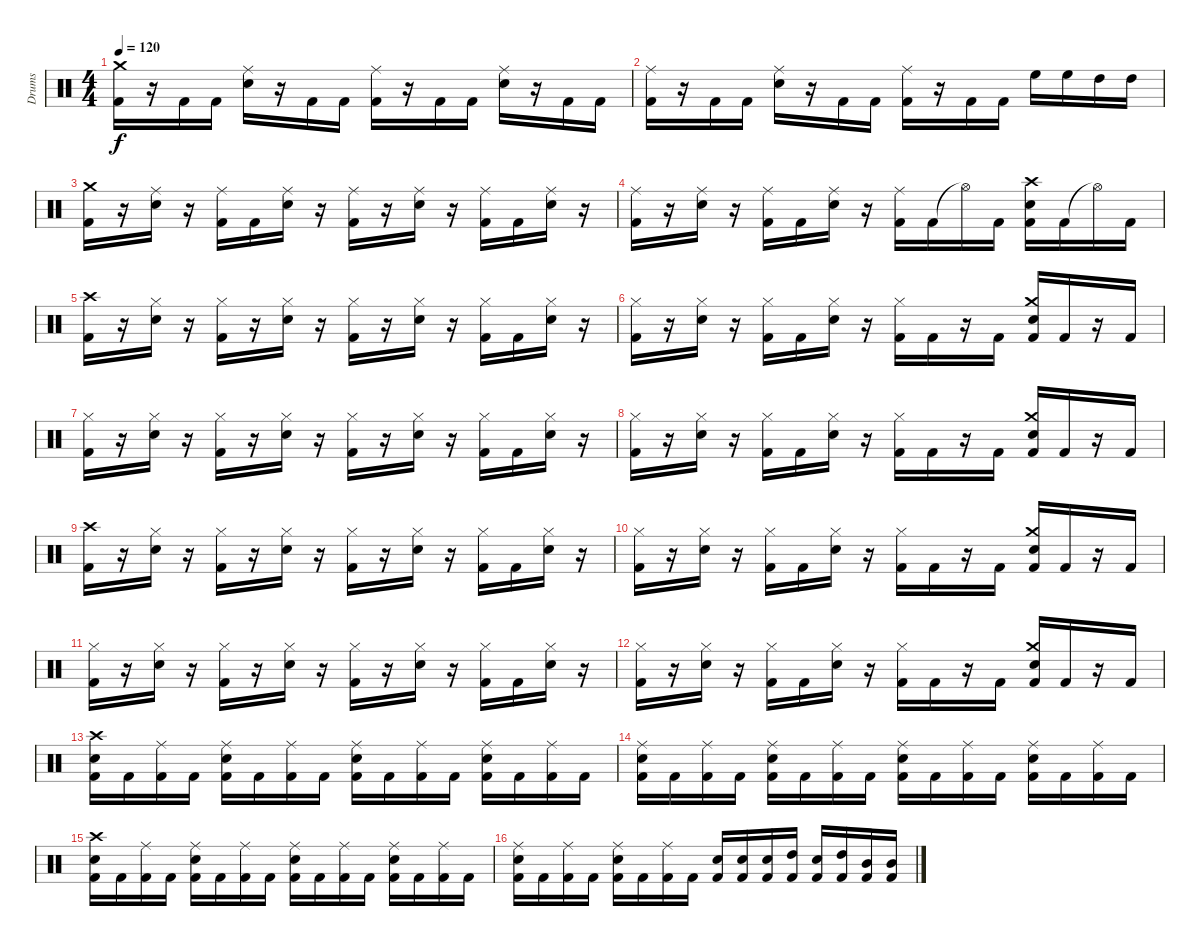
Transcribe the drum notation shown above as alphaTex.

\track ("Drums" "Drums") {instrument percussion}
\staff {score}
\articulation defaults
\ts (4 4)
\tempo 120
\clef neutral
\ks c
("Kick (hit) 2" "Crash medium (hit)").16{dy f} r.16 "Kick (hit) 2".16 "Kick (hit) 2".16 ("Electric Snare (hit)" "Ride (middle)").16 r.16 "Kick (hit) 2".16 "Kick (hit) 2".16 ("Kick (hit) 2" "Ride (middle)").16 r.16 "Kick (hit) 2".16 "Kick (hit) 2".16 ("Electric Snare (hit)" "Ride (middle)").16 r.16 "Kick (hit) 2".16 "Kick (hit) 2".16 |
("Kick (hit) 2" "Ride (middle)").16 r.16 "Kick (hit) 2".16 "Kick (hit) 2".16 ("Electric Snare (hit)" "Ride (middle)").16 r.16 "Kick (hit) 2".16 "Kick (hit) 2".16 ("Kick (hit) 2" "Ride (middle)").16 r.16 "Kick (hit) 2".16 "Kick (hit) 2".16 "High Floor Tom (hit)".16 "High Floor Tom (hit)".16 "High Tom (hit)".16 "High Tom (hit)".16 |
("Kick (hit) 2" "Crash medium (hit)").16 r.16 ("Electric Snare (hit)" "Ride (middle)").16 r.16 ("Kick (hit) 2" "Ride (middle)").16 "Kick (hit) 2".16 ("Electric Snare (hit)" "Ride (middle)").16 r.16 ("Kick (hit) 2" "Ride (middle)").16 r.16 ("Electric Snare (hit)" "Ride (middle)").16 r.16 ("Kick (hit) 2" "Ride (middle)").16 "Kick (hit) 2".16 ("Electric Snare (hit)" "Ride (middle)").16 r.16 |
("Kick (hit) 2" "Ride (middle)").16 r.16 ("Electric Snare (hit)" "Ride (middle)").16 r.16 ("Kick (hit) 2" "Ride (middle)").16 "Kick (hit) 2".16 ("Electric Snare (hit)" "Ride (middle)").16 r.16 ("Kick (hit) 2" "Ride (middle)").16 "Kick (hit) 2".16 "Hi-Hat (open)"{t}.16 "Kick (hit) 2".16 ("Kick (hit) 2" "Electric Snare (hit)" "Crash high (hit)").16 "Kick (hit) 2".16 "Hi-Hat (open)"{t}.16 "Kick (hit) 2".16 |
("Kick (hit) 2" "Crash high (hit)").16 r.16 ("Electric Snare (hit)" "Hi-Hat (closed)").16 r.16 ("Kick (hit) 2" "Hi-Hat (closed)").16 r.16 ("Electric Snare (hit)" "Hi-Hat (closed)").16 r.16 ("Kick (hit) 2" "Hi-Hat (closed)").16 r.16 ("Electric Snare (hit)" "Hi-Hat (closed)").16 r.16 ("Kick (hit) 2" "Hi-Hat (closed)").16 "Kick (hit) 2".16 ("Electric Snare (hit)" "Hi-Hat (closed)").16 r.16 |
("Kick (hit) 2" "Hi-Hat (closed)").16 r.16 ("Electric Snare (hit)" "Hi-Hat (closed)").16 r.16 ("Kick (hit) 2" "Hi-Hat (closed)").16 "Kick (hit) 2".16 ("Electric Snare (hit)" "Hi-Hat (closed)").16 r.16 ("Kick (hit) 2" "Hi-Hat (closed)").16 "Kick (hit) 2".16 r.16 "Kick (hit) 2".16 ("Kick (hit) 2" "Electric Snare (hit)" "Crash medium (hit)").16 "Kick (hit) 2".16 r.16 "Kick (hit) 2".16 |
("Kick (hit) 2" "Hi-Hat (closed)").16 r.16 ("Electric Snare (hit)" "Hi-Hat (closed)").16 r.16 ("Kick (hit) 2" "Hi-Hat (closed)").16 r.16 ("Electric Snare (hit)" "Hi-Hat (closed)").16 r.16 ("Kick (hit) 2" "Hi-Hat (closed)").16 r.16 ("Electric Snare (hit)" "Hi-Hat (closed)").16 r.16 ("Kick (hit) 2" "Hi-Hat (closed)").16 "Kick (hit) 2".16 ("Electric Snare (hit)" "Hi-Hat (closed)").16 r.16 |
("Kick (hit) 2" "Hi-Hat (closed)").16 r.16 ("Electric Snare (hit)" "Hi-Hat (closed)").16 r.16 ("Kick (hit) 2" "Hi-Hat (closed)").16 "Kick (hit) 2".16 ("Electric Snare (hit)" "Hi-Hat (closed)").16 r.16 ("Kick (hit) 2" "Hi-Hat (closed)").16 "Kick (hit) 2".16 r.16 "Kick (hit) 2".16 ("Kick (hit) 2" "Electric Snare (hit)" "Crash medium (hit)").16 "Kick (hit) 2".16 r.16 "Kick (hit) 2".16 |
("Kick (hit) 2" "Crash high (hit)").16 r.16 ("Electric Snare (hit)" "Hi-Hat (closed)").16 r.16 ("Kick (hit) 2" "Hi-Hat (closed)").16 r.16 ("Electric Snare (hit)" "Hi-Hat (closed)").16 r.16 ("Kick (hit) 2" "Hi-Hat (closed)").16 r.16 ("Electric Snare (hit)" "Hi-Hat (closed)").16 r.16 ("Kick (hit) 2" "Hi-Hat (closed)").16 "Kick (hit) 2".16 ("Electric Snare (hit)" "Hi-Hat (closed)").16 r.16 |
("Kick (hit) 2" "Hi-Hat (closed)").16 r.16 ("Electric Snare (hit)" "Hi-Hat (closed)").16 r.16 ("Kick (hit) 2" "Hi-Hat (closed)").16 "Kick (hit) 2".16 ("Electric Snare (hit)" "Hi-Hat (closed)").16 r.16 ("Kick (hit) 2" "Hi-Hat (closed)").16 "Kick (hit) 2".16 r.16 "Kick (hit) 2".16 ("Kick (hit) 2" "Electric Snare (hit)" "Crash medium (hit)").16 "Kick (hit) 2".16 r.16 "Kick (hit) 2".16 |
("Kick (hit) 2" "Hi-Hat (closed)").16 r.16 ("Electric Snare (hit)" "Hi-Hat (closed)").16 r.16 ("Kick (hit) 2" "Hi-Hat (closed)").16 r.16 ("Electric Snare (hit)" "Hi-Hat (closed)").16 r.16 ("Kick (hit) 2" "Hi-Hat (closed)").16 r.16 ("Electric Snare (hit)" "Hi-Hat (closed)").16 r.16 ("Kick (hit) 2" "Hi-Hat (closed)").16 "Kick (hit) 2".16 ("Electric Snare (hit)" "Hi-Hat (closed)").16 r.16 |
("Kick (hit) 2" "Hi-Hat (closed)").16 r.16 ("Electric Snare (hit)" "Hi-Hat (closed)").16 r.16 ("Kick (hit) 2" "Hi-Hat (closed)").16 "Kick (hit) 2".16 ("Electric Snare (hit)" "Hi-Hat (closed)").16 r.16 ("Kick (hit) 2" "Hi-Hat (closed)").16 "Kick (hit) 2".16 r.16 "Kick (hit) 2".16 ("Kick (hit) 2" "Electric Snare (hit)" "Crash medium (hit)").16 "Kick (hit) 2".16 r.16 "Kick (hit) 2".16 |
("Kick (hit) 2" "Electric Snare (hit)" "Crash high (hit)").16 "Kick (hit) 2".16 ("Kick (hit) 2" "Ride (middle)").16 "Kick (hit) 2".16 ("Kick (hit) 2" "Electric Snare (hit)" "Ride (middle)").16 "Kick (hit) 2".16 ("Kick (hit) 2" "Ride (middle)").16 "Kick (hit) 2".16 ("Kick (hit) 2" "Electric Snare (hit)" "Ride (middle)").16 "Kick (hit) 2".16 ("Kick (hit) 2" "Ride (middle)").16 "Kick (hit) 2".16 ("Kick (hit) 2" "Electric Snare (hit)" "Ride (middle)").16 "Kick (hit) 2".16 ("Kick (hit) 2" "Ride (middle)").16 "Kick (hit) 2".16 |
("Kick (hit) 2" "Electric Snare (hit)" "Ride (middle)").16 "Kick (hit) 2".16 ("Kick (hit) 2" "Ride (middle)").16 "Kick (hit) 2".16 ("Kick (hit) 2" "Electric Snare (hit)" "Ride (middle)").16 "Kick (hit) 2".16 ("Kick (hit) 2" "Ride (middle)").16 "Kick (hit) 2".16 ("Kick (hit) 2" "Electric Snare (hit)" "Ride (middle)").16 "Kick (hit) 2".16 ("Kick (hit) 2" "Ride (middle)").16 "Kick (hit) 2".16 ("Kick (hit) 2" "Electric Snare (hit)" "Ride (middle)").16 "Kick (hit) 2".16 ("Kick (hit) 2" "Ride (middle)").16 "Kick (hit) 2".16 |
("Kick (hit) 2" "Electric Snare (hit)" "Crash high (hit)").16 "Kick (hit) 2".16 ("Kick (hit) 2" "Ride (middle)").16 "Kick (hit) 2".16 ("Kick (hit) 2" "Electric Snare (hit)" "Ride (middle)").16 "Kick (hit) 2".16 ("Kick (hit) 2" "Ride (middle)").16 "Kick (hit) 2".16 ("Kick (hit) 2" "Electric Snare (hit)" "Ride (middle)").16 "Kick (hit) 2".16 ("Kick (hit) 2" "Ride (middle)").16 "Kick (hit) 2".16 ("Kick (hit) 2" "Electric Snare (hit)" "Ride (middle)").16 "Kick (hit) 2".16 ("Kick (hit) 2" "Ride (middle)").16 "Kick (hit) 2".16 |
("Kick (hit) 2" "Electric Snare (hit)" "Ride (middle)").16 "Kick (hit) 2".16 ("Kick (hit) 2" "Ride (middle)").16 "Kick (hit) 2".16 ("Kick (hit) 2" "Electric Snare (hit)" "Ride (middle)").16 "Kick (hit) 2".16 ("Kick (hit) 2" "Ride (middle)").16 "Kick (hit) 2".16 ("Kick (hit) 2" "Electric Snare (hit)").16 ("Kick (hit) 2" "Electric Snare (hit)").16 ("Kick (hit) 2" "Electric Snare (hit)").16 ("Kick (hit) 2" "High Tom (hit)").16 ("Kick (hit) 2" "Electric Snare (hit)").16 ("Kick (hit) 2" "High Tom (hit)").16 ("Kick (hit) 2" "Mid Tom (hit)").16 ("Kick (hit) 2" "Mid Tom (hit)").16
